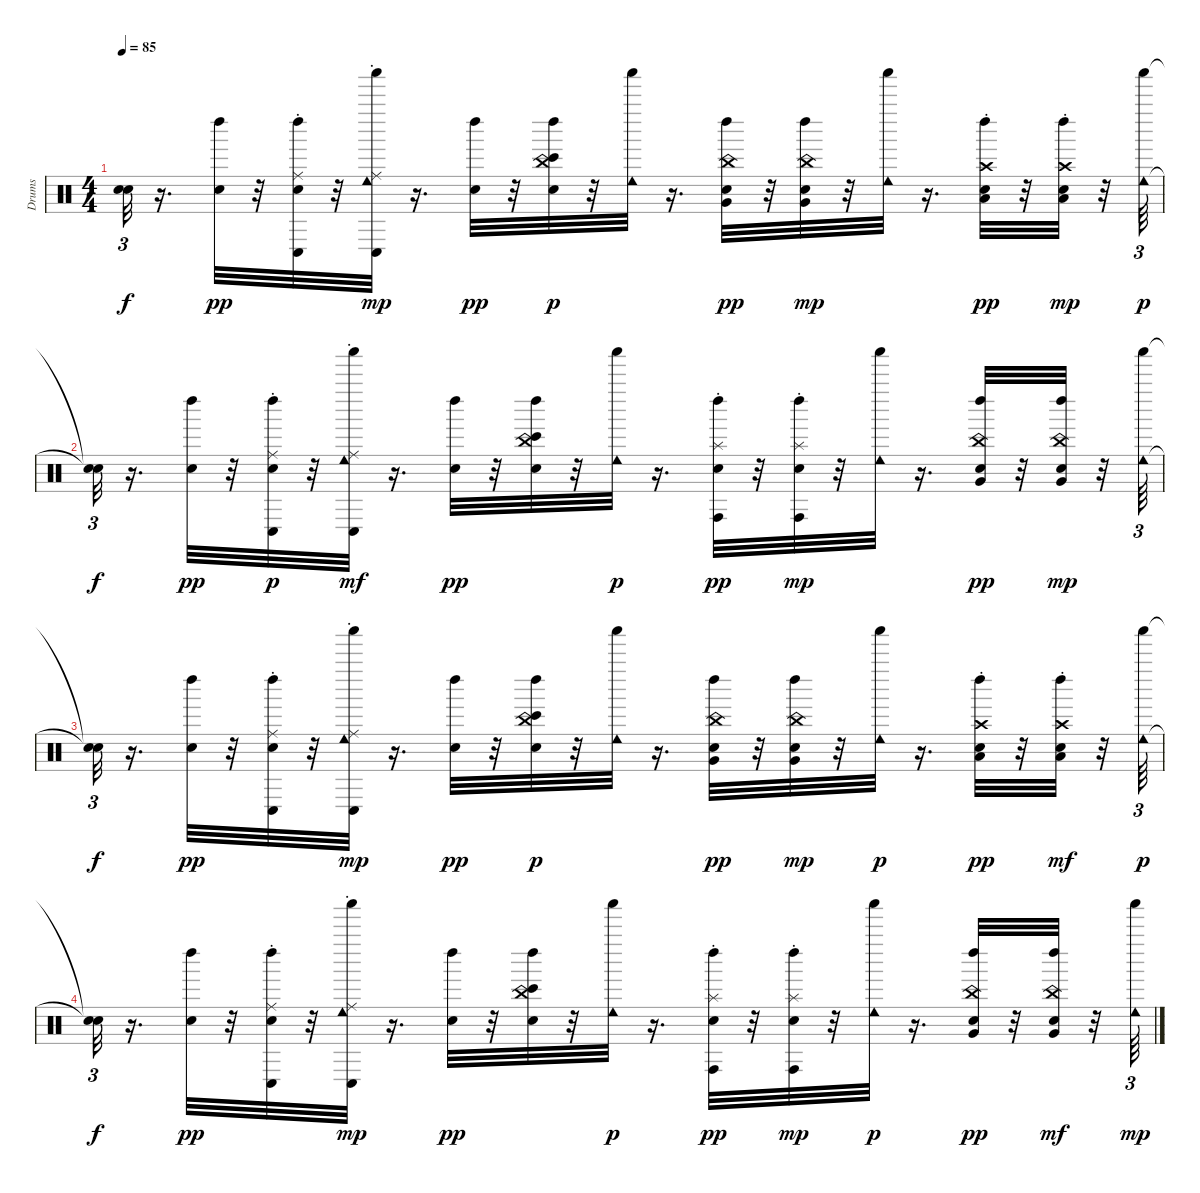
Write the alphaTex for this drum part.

\track ("Drums" "Drums") {instrument percussion}
\staff {score}
\articulation defaults
\ts (4 4)
\tempo 85
\clef neutral
\ks c
("Snare (hit)"{t} "Snare (hit)"{t}).32{tu (3 2) dy f} r.16{d} ("Left Maraca (hit)" "Snare (hit)").32{dy pp} r.32 ("Conga low (hit)" "Ride (choke)" "Left Maraca (hit)" "Snare (hit)").32 r.32 ("Shaker (hit)" "Cowbell low (hit)" "Conga low (hit)" "Ride (choke)").32{dy mp} r.16{d} ("Left Maraca (hit)" "Snare (hit)").32{dy pp} r.32 ("Bongo High (hit)" "China (choke)" "Snare (hit)" "Left Maraca (hit)").32{dy p} r.32 ("Cowbell low (hit)" "Shaker (hit)").32 r.16{d} ("China (choke)" "Very Low Tom (hit)" "Left Maraca (hit)" "Snare (hit)").32{dy pp} r.32 ("Left Maraca (hit)" "Snare (hit)" "China (choke)" "Very Low Tom (hit)").32{dy mp} r.32 ("Cowbell low (hit)" "Shaker (hit)").32 r.16{d} ("Crash high (choke)" "Low Floor Tom (hit)" "Left Maraca (hit)" "Snare (hit)").32{dy pp} r.32 ("Left Maraca (hit)" "Snare (hit)" "Crash high (choke)" "Low Floor Tom (hit)").32{dy mp} r.32 ("Shaker (hit)" "Cowbell low (hit)").64{tu (3 2) dy p} |
("Snare (hit)"{t} "Snare (hit)"{t}).32{tu (3 2) dy f} r.16{d} ("Left Maraca (hit)" "Snare (hit)").32{dy pp} r.32 ("Ride (choke)" "Conga low (hit)" "Snare (hit)" "Left Maraca (hit)").32{dy p} r.32 ("Cowbell low (hit)" "Shaker (hit)" "Ride (choke)" "Conga low (hit)").32{dy mf} r.16{d} ("Left Maraca (hit)" "Snare (hit)").32{dy pp} r.32 ("Bongo High (hit)" "China (choke)" "Left Maraca (hit)" "Snare (hit)").32 r.32 ("Shaker (hit)" "Cowbell low (hit)").32{dy p} r.16{d} ("Conga high (hit)" "Splash (choke)" "Left Maraca (hit)" "Snare (hit)").32{dy pp} r.32 ("Left Maraca (hit)" "Snare (hit)" "Conga high (hit)" "Splash (choke)").32{dy mp} r.32 ("Cowbell low (hit)" "Shaker (hit)").32 r.16{d} ("China (choke)" "Very Low Tom (hit)" "Left Maraca (hit)" "Snare (hit)").32{dy pp} r.32 ("Left Maraca (hit)" "Snare (hit)" "China (choke)" "Very Low Tom (hit)").32{dy mp} r.32 ("Cowbell low (hit)" "Shaker (hit)").64{tu (3 2)} |
("Snare (hit)"{t} "Snare (hit)"{t}).32{tu (3 2) dy f} r.16{d} ("Snare (hit)" "Left Maraca (hit)").32{dy pp} r.32 ("Conga low (hit)" "Ride (choke)" "Left Maraca (hit)" "Snare (hit)").32 r.32 ("Shaker (hit)" "Cowbell low (hit)" "Conga low (hit)" "Ride (choke)").32{dy mp} r.16{d} ("Left Maraca (hit)" "Snare (hit)").32{dy pp} r.32 ("Bongo High (hit)" "China (choke)" "Snare (hit)" "Left Maraca (hit)").32{dy p} r.32 ("Shaker (hit)" "Cowbell low (hit)").32 r.16{d} ("China (choke)" "Very Low Tom (hit)" "Left Maraca (hit)" "Snare (hit)").32{dy pp} r.32 ("Left Maraca (hit)" "Snare (hit)" "Very Low Tom (hit)" "China (choke)").32{dy mp} r.32 ("Shaker (hit)" "Cowbell low (hit)").32{dy p} r.16{d} ("Crash high (choke)" "Low Floor Tom (hit)" "Left Maraca (hit)" "Snare (hit)").32{dy pp} r.32 ("Snare (hit)" "Left Maraca (hit)" "Low Floor Tom (hit)" "Crash high (choke)").32{dy mf} r.32 ("Shaker (hit)" "Cowbell low (hit)").64{tu (3 2) dy p} |
("Snare (hit)"{t} "Snare (hit)"{t}).32{tu (3 2) dy f} r.16{d} ("Left Maraca (hit)" "Snare (hit)").32{dy pp} r.32 ("Conga low (hit)" "Ride (choke)" "Left Maraca (hit)" "Snare (hit)").32 r.32 ("Shaker (hit)" "Cowbell low (hit)" "Conga low (hit)" "Ride (choke)").32{dy mp} r.16{d} ("Left Maraca (hit)" "Snare (hit)").32{dy pp} r.32 ("Bongo High (hit)" "China (choke)" "Left Maraca (hit)" "Snare (hit)").32 r.32 ("Shaker (hit)" "Cowbell low (hit)").32{dy p} r.16{d} ("Conga high (hit)" "Splash (choke)" "Left Maraca (hit)" "Snare (hit)").32{dy pp} r.32 ("Left Maraca (hit)" "Snare (hit)" "Conga high (hit)" "Splash (choke)").32{dy mp} r.32 ("Shaker (hit)" "Cowbell low (hit)").32{dy p} r.16{d} ("China (choke)" "Very Low Tom (hit)" "Left Maraca (hit)" "Snare (hit)").32{dy pp} r.32 ("Left Maraca (hit)" "Snare (hit)" "China (choke)" "Very Low Tom (hit)").32{dy mf} r.32 ("Cowbell low (hit)" "Shaker (hit)").64{tu (3 2) dy mp}
